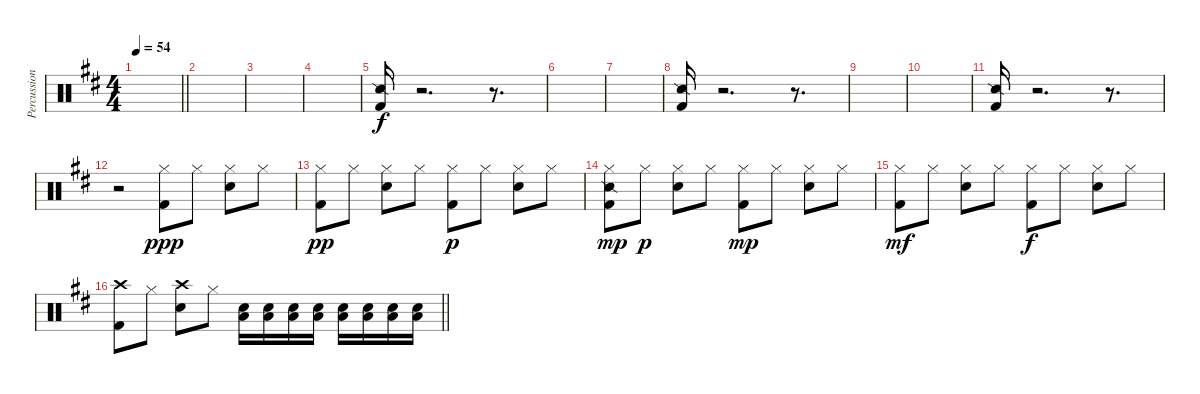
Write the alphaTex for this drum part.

\track ("Percussion" "Percussion") {instrument percussion}
\staff {score}
\articulation defaults
\ts (4 4)
\tempo 54
\clef neutral
\barLineRight lightlight
\ks d
|
|
|
|
("Snare (side stick) 2" "Kick (hit) 2").16 r.2{d} r.8{d} |
|
|
("Snare (side stick) 2" "Kick (hit) 2").16 r.2{d} r.8{d} |
|
|
("Snare (side stick) 2" "Kick (hit) 2").16 r.2{d} r.8{d} |
r.2 ("Hi-Hat (closed)" "Kick (hit) 2").8{dy ppp} "Hi-Hat (closed)".8 ("Hi-Hat (closed)" "Snare (hit) 2").8 "Hi-Hat (closed)".8 |
("Hi-Hat (closed)" "Kick (hit) 2").8{dy pp} "Hi-Hat (closed)".8 ("Hi-Hat (closed)" "Snare (hit) 2").8 "Hi-Hat (closed)".8 ("Hi-Hat (closed)" "Kick (hit) 2").8{dy p} "Hi-Hat (closed)".8 ("Hi-Hat (closed)" "Snare (hit) 2").8 "Hi-Hat (closed)".8 |
("Hi-Hat (closed)" "Snare (side stick) 2" "Kick (hit) 2").8{dy mp} "Hi-Hat (closed)".8{dy p} ("Hi-Hat (closed)" "Snare (hit) 2").8 "Hi-Hat (closed)".8 ("Hi-Hat (closed)" "Kick (hit) 2").8{dy mp} "Hi-Hat (closed)".8 ("Hi-Hat (closed)" "Snare (hit) 2").8 "Hi-Hat (closed)".8 |
("Hi-Hat (closed)" "Kick (hit) 2").8{dy mf} "Hi-Hat (closed)".8 ("Hi-Hat (closed)" "Snare (hit) 2").8 "Hi-Hat (closed)".8 ("Hi-Hat (closed)" "Kick (hit) 2").8{dy f} "Hi-Hat (closed)".8 ("Hi-Hat (closed)" "Snare (hit) 2").8 "Hi-Hat (closed)".8 |
\barLineRight lightlight
("Crash high (hit)" "Kick (hit) 2").8 "Hi-Hat (closed)".8 ("Crash high (hit)" "Snare (hit) 2").8 "Hi-Hat (closed)".8 ("Snare (hit) 2" "Low Tom (hit)").16 ("Snare (hit) 2" "Low Tom (hit)").16 ("Snare (hit) 2" "Low Tom (hit)").16 ("Snare (hit) 2" "Low Tom (hit)").16 ("Snare (hit) 2" "Low Tom (hit)").16 ("Snare (hit) 2" "Low Tom (hit)").16 ("Snare (hit) 2" "Low Tom (hit)").16 ("Snare (hit) 2" "Low Tom (hit)").16
